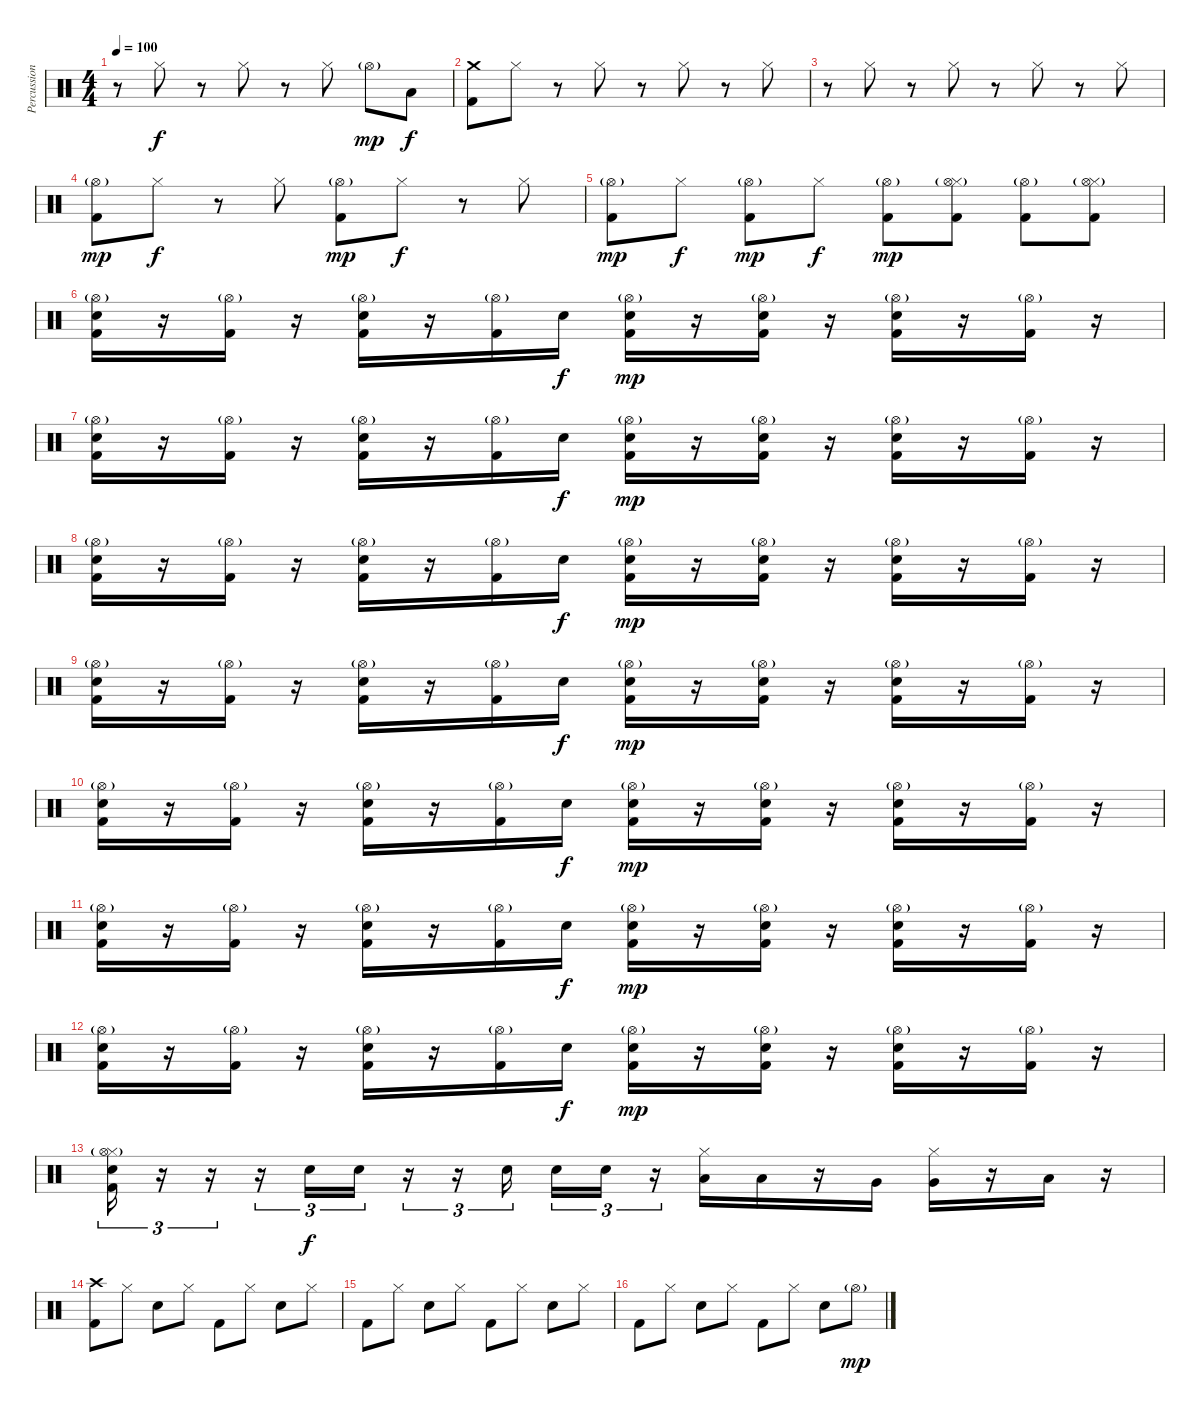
\track ("Percussions" "Percussion") {instrument percussion}
\staff {score}
\articulation defaults
\ts (4 4)
\tempo 100
\clef neutral
\ks c
r.8{dy f} "Hi-Hat (closed)".8 r.8 "Hi-Hat (closed)".8 r.8 "Hi-Hat (closed)".8 "Hi-Hat (open)"{g}.8{dy mp} "Low Floor Tom (hit)".8{dy f} |
("Kick (hit) 2" "Crash medium (hit)").8 "Hi-Hat (closed)".8 r.8 "Hi-Hat (closed)".8 r.8 "Hi-Hat (closed)".8 r.8 "Hi-Hat (closed)".8 |
r.8 "Hi-Hat (closed)".8 r.8 "Hi-Hat (closed)".8 r.8 "Hi-Hat (closed)".8 r.8 "Hi-Hat (closed)".8 |
("Kick (hit) 2" "Hi-Hat (open)"{g}).8{dy mp} "Hi-Hat (closed)".8{dy f} r.8 "Hi-Hat (closed)".8 ("Kick (hit) 2" "Hi-Hat (open)"{g}).8{dy mp} "Hi-Hat (closed)".8{dy f} r.8 "Hi-Hat (closed)".8 |
("Kick (hit) 2" "Hi-Hat (open)"{g}).8{dy mp} "Hi-Hat (closed)".8{dy f} ("Kick (hit) 2" "Hi-Hat (open)"{g}).8{dy mp} "Hi-Hat (closed)".8{dy f} ("Kick (hit) 2" "Hi-Hat (open)"{g}).8{dy mp} ("Hi-Hat (closed)" "Kick (hit) 2" "Hi-Hat (open)"{g}).8 ("Kick (hit) 2" "Hi-Hat (open)"{g}).8 ("Hi-Hat (closed)" "Kick (hit) 2" "Hi-Hat (open)"{g}).8 |
("Electric Snare (hit)" "Hi-Hat (open)"{g} "Kick (hit) 2").16 r.16 ("Hi-Hat (open)"{g} "Kick (hit) 2").16 r.16 ("Electric Snare (hit)" "Hi-Hat (open)"{g} "Kick (hit) 2").16 r.16 ("Hi-Hat (open)"{g} "Kick (hit) 2").16 "Electric Snare (hit)".16{dy f} ("Electric Snare (hit)" "Hi-Hat (open)"{g} "Kick (hit) 2").16{dy mp} r.16 ("Electric Snare (hit)" "Hi-Hat (open)"{g} "Kick (hit) 2").16 r.16 ("Electric Snare (hit)" "Hi-Hat (open)"{g} "Kick (hit) 2").16 r.16 ("Hi-Hat (open)"{g} "Kick (hit) 2").16 r.16 |
("Electric Snare (hit)" "Hi-Hat (open)"{g} "Kick (hit) 2").16 r.16 ("Hi-Hat (open)"{g} "Kick (hit) 2").16 r.16 ("Electric Snare (hit)" "Hi-Hat (open)"{g} "Kick (hit) 2").16 r.16 ("Hi-Hat (open)"{g} "Kick (hit) 2").16 "Electric Snare (hit)".16{dy f} ("Electric Snare (hit)" "Hi-Hat (open)"{g} "Kick (hit) 2").16{dy mp} r.16 ("Electric Snare (hit)" "Hi-Hat (open)"{g} "Kick (hit) 2").16 r.16 ("Electric Snare (hit)" "Hi-Hat (open)"{g} "Kick (hit) 2").16 r.16 ("Hi-Hat (open)"{g} "Kick (hit) 2").16 r.16 |
("Electric Snare (hit)" "Hi-Hat (open)"{g} "Kick (hit) 2").16 r.16 ("Hi-Hat (open)"{g} "Kick (hit) 2").16 r.16 ("Electric Snare (hit)" "Hi-Hat (open)"{g} "Kick (hit) 2").16 r.16 ("Hi-Hat (open)"{g} "Kick (hit) 2").16 "Electric Snare (hit)".16{dy f} ("Electric Snare (hit)" "Hi-Hat (open)"{g} "Kick (hit) 2").16{dy mp} r.16 ("Electric Snare (hit)" "Hi-Hat (open)"{g} "Kick (hit) 2").16 r.16 ("Electric Snare (hit)" "Hi-Hat (open)"{g} "Kick (hit) 2").16 r.16 ("Hi-Hat (open)"{g} "Kick (hit) 2").16 r.16 |
("Electric Snare (hit)" "Hi-Hat (open)"{g} "Kick (hit) 2").16 r.16 ("Hi-Hat (open)"{g} "Kick (hit) 2").16 r.16 ("Electric Snare (hit)" "Hi-Hat (open)"{g} "Kick (hit) 2").16 r.16 ("Hi-Hat (open)"{g} "Kick (hit) 2").16 "Electric Snare (hit)".16{dy f} ("Electric Snare (hit)" "Hi-Hat (open)"{g} "Kick (hit) 2").16{dy mp} r.16 ("Electric Snare (hit)" "Hi-Hat (open)"{g} "Kick (hit) 2").16 r.16 ("Electric Snare (hit)" "Hi-Hat (open)"{g} "Kick (hit) 2").16 r.16 ("Hi-Hat (open)"{g} "Kick (hit) 2").16 r.16 |
("Electric Snare (hit)" "Hi-Hat (open)"{g} "Kick (hit) 2").16 r.16 ("Hi-Hat (open)"{g} "Kick (hit) 2").16 r.16 ("Electric Snare (hit)" "Hi-Hat (open)"{g} "Kick (hit) 2").16 r.16 ("Hi-Hat (open)"{g} "Kick (hit) 2").16 "Electric Snare (hit)".16{dy f} ("Electric Snare (hit)" "Hi-Hat (open)"{g} "Kick (hit) 2").16{dy mp} r.16 ("Electric Snare (hit)" "Hi-Hat (open)"{g} "Kick (hit) 2").16 r.16 ("Electric Snare (hit)" "Hi-Hat (open)"{g} "Kick (hit) 2").16 r.16 ("Hi-Hat (open)"{g} "Kick (hit) 2").16 r.16 |
("Electric Snare (hit)" "Hi-Hat (open)"{g} "Kick (hit) 2").16 r.16 ("Hi-Hat (open)"{g} "Kick (hit) 2").16 r.16 ("Electric Snare (hit)" "Hi-Hat (open)"{g} "Kick (hit) 2").16 r.16 ("Hi-Hat (open)"{g} "Kick (hit) 2").16 "Electric Snare (hit)".16{dy f} ("Electric Snare (hit)" "Hi-Hat (open)"{g} "Kick (hit) 2").16{dy mp} r.16 ("Electric Snare (hit)" "Hi-Hat (open)"{g} "Kick (hit) 2").16 r.16 ("Electric Snare (hit)" "Hi-Hat (open)"{g} "Kick (hit) 2").16 r.16 ("Hi-Hat (open)"{g} "Kick (hit) 2").16 r.16 |
("Electric Snare (hit)" "Hi-Hat (open)"{g} "Kick (hit) 2").16 r.16 ("Hi-Hat (open)"{g} "Kick (hit) 2").16 r.16 ("Electric Snare (hit)" "Hi-Hat (open)"{g} "Kick (hit) 2").16 r.16 ("Hi-Hat (open)"{g} "Kick (hit) 2").16 "Electric Snare (hit)".16{dy f} ("Electric Snare (hit)" "Hi-Hat (open)"{g} "Kick (hit) 2").16{dy mp} r.16 ("Electric Snare (hit)" "Hi-Hat (open)"{g} "Kick (hit) 2").16 r.16 ("Electric Snare (hit)" "Hi-Hat (open)"{g} "Kick (hit) 2").16 r.16 ("Hi-Hat (open)"{g} "Kick (hit) 2").16 r.16 |
("Hi-Hat (closed)" "Electric Snare (hit)" "Hi-Hat (open)"{g} "Kick (hit) 2").16{tu (3 2)} r.16{tu (3 2)} r.16{tu (3 2)} r.16{tu (3 2)} "Electric Snare (hit)".16{tu (3 2) dy f} "Electric Snare (hit)".16{tu (3 2)} r.16{tu (3 2)} r.16{tu (3 2)} "Electric Snare (hit)".16{tu (3 2)} "Electric Snare (hit)".16{tu (3 2)} "Electric Snare (hit)".16{tu (3 2)} r.16{tu (3 2)} ("Hi-Hat (closed)" "Low Tom (hit)").16 "Low Tom (hit)".16 r.16 "Very Low Tom (hit)".16 ("Hi-Hat (closed)" "Very Low Tom (hit)").16 r.16 "Low Floor Tom (hit)".16 r.16 |
("Crash high (hit)" "Kick (hit) 2").8 "Hi-Hat (closed)".8 "Electric Snare (hit)".8 "Hi-Hat (closed)".8 "Kick (hit) 2".8 "Hi-Hat (closed)".8 "Electric Snare (hit)".8 "Hi-Hat (closed)".8 |
"Kick (hit) 2".8 "Hi-Hat (closed)".8 "Electric Snare (hit)".8 "Hi-Hat (closed)".8 "Kick (hit) 2".8 "Hi-Hat (closed)".8 "Electric Snare (hit)".8 "Hi-Hat (closed)".8 |
"Kick (hit) 2".8 "Hi-Hat (closed)".8 "Electric Snare (hit)".8 "Hi-Hat (closed)".8 "Kick (hit) 2".8 "Hi-Hat (closed)".8 "Electric Snare (hit)".8 "Hi-Hat (open)"{g}.8{dy mp}
